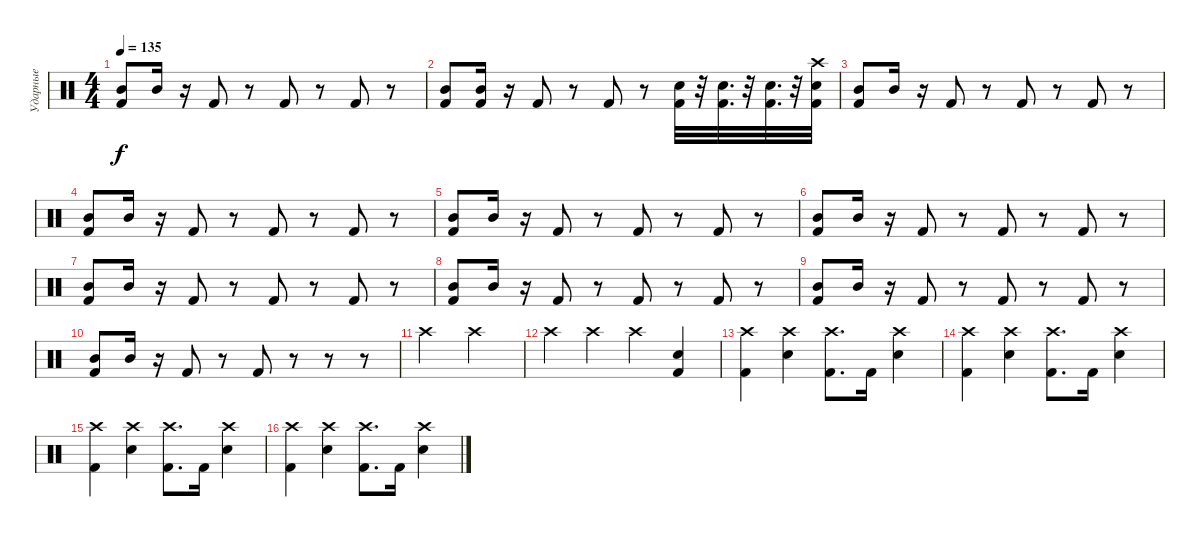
\track ("Ударные" "Ударные") {instrument percussion}
\staff {score}
\articulation defaults
\ts (4 4)
\tempo 135
\clef neutral
\ks c
("Kick (hit) 2" "Mid Tom (hit)").8{dy f} "Mid Tom (hit)".16 r.16 "Kick (hit) 2".8 r.8 "Kick (hit) 2".8 r.8 "Kick (hit) 2".8 r.8 |
("Mid Tom (hit)" "Kick (hit) 2").8 ("Mid Tom (hit)" "Kick (hit) 2").16 r.16 "Kick (hit) 2".8 r.8 "Kick (hit) 2".8 r.8 ("Electric Snare (hit)" "Kick (hit) 2").32 r.32 ("Electric Snare (hit)" "Kick (hit) 2").32{d} r.32 ("Electric Snare (hit)" "Kick (hit) 2").32{d} r.32 ("Crash high (hit)" "Electric Snare (hit)" "Kick (hit) 2").32 |
("Kick (hit) 2" "Mid Tom (hit)").8 "Mid Tom (hit)".16 r.16 "Kick (hit) 2".8 r.8 "Kick (hit) 2".8 r.8 "Kick (hit) 2".8 r.8 |
("Kick (hit) 2" "Mid Tom (hit)").8 "Mid Tom (hit)".16 r.16 "Kick (hit) 2".8 r.8 "Kick (hit) 2".8 r.8 "Kick (hit) 2".8 r.8 |
("Kick (hit) 2" "Mid Tom (hit)").8 "Mid Tom (hit)".16 r.16 "Kick (hit) 2".8 r.8 "Kick (hit) 2".8 r.8 "Kick (hit) 2".8 r.8 |
("Kick (hit) 2" "Mid Tom (hit)").8 "Mid Tom (hit)".16 r.16 "Kick (hit) 2".8 r.8 "Kick (hit) 2".8 r.8 "Kick (hit) 2".8 r.8 |
("Kick (hit) 2" "Mid Tom (hit)").8 "Mid Tom (hit)".16 r.16 "Kick (hit) 2".8 r.8 "Kick (hit) 2".8 r.8 "Kick (hit) 2".8 r.8 |
("Kick (hit) 2" "Mid Tom (hit)").8 "Mid Tom (hit)".16 r.16 "Kick (hit) 2".8 r.8 "Kick (hit) 2".8 r.8 "Kick (hit) 2".8 r.8 |
("Kick (hit) 2" "Mid Tom (hit)").8 "Mid Tom (hit)".16 r.16 "Kick (hit) 2".8 r.8 "Kick (hit) 2".8 r.8 "Kick (hit) 2".8 r.8 |
("Kick (hit) 2" "Mid Tom (hit)").8 "Mid Tom (hit)".16 r.16 "Kick (hit) 2".8 r.8 "Kick (hit) 2".8 r.8 r.8 r.8 |
"Crash high (hit)".2 "Crash high (hit)".2 |
"Crash high (hit)".4 "Crash high (hit)".4 "Crash high (hit)".4 ("Electric Snare (hit)" "Kick (hit) 2").4 |
("Crash high (hit)" "Kick (hit) 2").4 ("Crash high (hit)" "Electric Snare (hit)").4 ("Crash high (hit)" "Kick (hit) 2").8{d} "Kick (hit) 2".16 ("Crash high (hit)" "Electric Snare (hit)").4 |
("Crash high (hit)" "Kick (hit) 2").4 ("Crash high (hit)" "Electric Snare (hit)").4 ("Crash high (hit)" "Kick (hit) 2").8{d} "Kick (hit) 2".16 ("Crash high (hit)" "Electric Snare (hit)").4 |
("Crash high (hit)" "Kick (hit) 2").4 ("Crash high (hit)" "Electric Snare (hit)").4 ("Crash high (hit)" "Kick (hit) 2").8{d} "Kick (hit) 2".16 ("Crash high (hit)" "Electric Snare (hit)").4 |
("Crash high (hit)" "Kick (hit) 2").4 ("Crash high (hit)" "Electric Snare (hit)").4 ("Crash high (hit)" "Kick (hit) 2").8{d} "Kick (hit) 2".16 ("Crash high (hit)" "Electric Snare (hit)").4
